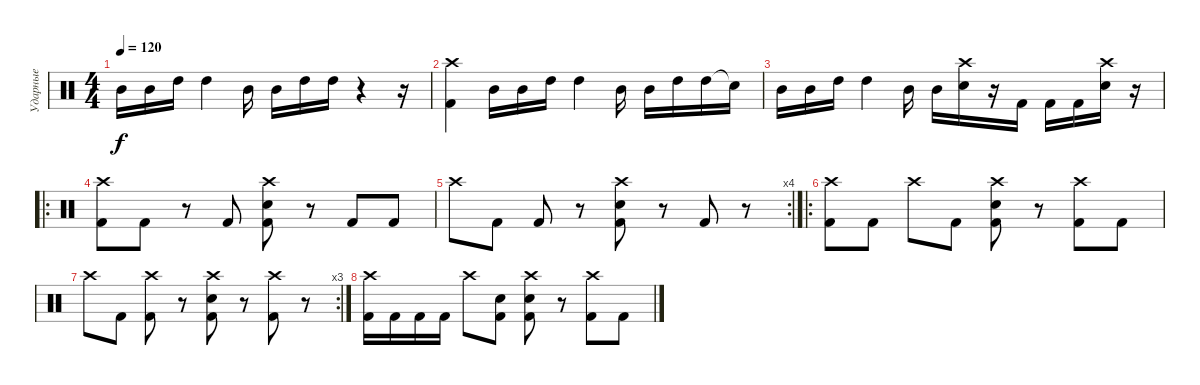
\track ("Ударные" "Ударные") {instrument percussion}
\staff {score}
\articulation defaults
\ts (4 4)
\tempo 120
\clef neutral
\ks c "Mid Tom (hit)".16{dy f} "Mid Tom (hit)".16 "High Tom (hit)".16 "High Tom (hit)".4 "Mid Tom (hit)".16 "Mid Tom (hit)".16 "High Tom (hit)".16 "High Tom (hit)".16
r.4 r.16 |
("Crash high (hit)" "Kick (hit) 2").4 "Mid Tom (hit)".16 "Mid Tom (hit)".16 "High Tom (hit)".16 "High Tom (hit)".4 "Mid Tom (hit)".16 "Mid Tom (hit)".16 "High Tom (hit)".16 "High Tom (hit)".16 "Snare (hit)"{t}.16 |
"Mid Tom (hit)".16 "Mid Tom (hit)".16 "High Tom (hit)".16 "High Tom (hit)".4 "Mid Tom (hit)".16 "Mid Tom (hit)".16 ("Snare (hit) 2" "Crash high (hit)").16 r.16 "Kick (hit) 2".16 "Kick (hit) 2".16 "Kick (hit) 2".16 ("Snare (hit) 2" "Crash high (hit)").16 r.16 |
\ro
("Kick (hit) 2" "Crash high (hit)").8 "Kick (hit) 2".8 r.8 "Kick (hit) 2".8 ("Kick (hit) 2" "Snare (hit) 2" "Crash high (hit)").8 r.8 "Kick (hit) 2".8 "Kick (hit) 2".8 |
\rc 4 "Crash high (hit)".8 "Kick (hit) 2".8 "Kick (hit) 2".8
r.8 ("Kick (hit) 2" "Snare (hit) 2" "Crash high (hit)").8 r.8 "Kick (hit) 2".8 r.8 |
\ro
("Kick (hit) 2" "Crash high (hit)").8 "Kick (hit) 2".8 "Crash high (hit)".8 "Kick (hit) 2".8 ("Kick (hit) 2" "Snare (hit) 2" "Crash high (hit)").8 r.8 ("Kick (hit) 2" "Crash high (hit)").8 "Kick (hit) 2".8 |
\rc 3 "Crash high (hit)".8 "Kick (hit) 2".8
("Kick (hit) 2" "Crash high (hit)").8 r.8 ("Kick (hit) 2" "Snare (hit) 2" "Crash high (hit)").8 r.8 ("Kick (hit) 2" "Crash high (hit)").8 r.8 |
("Kick (hit) 2" "Crash high (hit)").16 "Kick (hit) 2".16 "Kick (hit) 2".16 "Kick (hit) 2".16 "Crash high (hit)".8 ("Kick (hit) 2" "Snare (hit) 2").8 ("Kick (hit) 2" "Snare (hit) 2" "Crash high (hit)").8 r.8 ("Kick (hit) 2" "Crash high (hit)").8 "Kick (hit) 2".8
